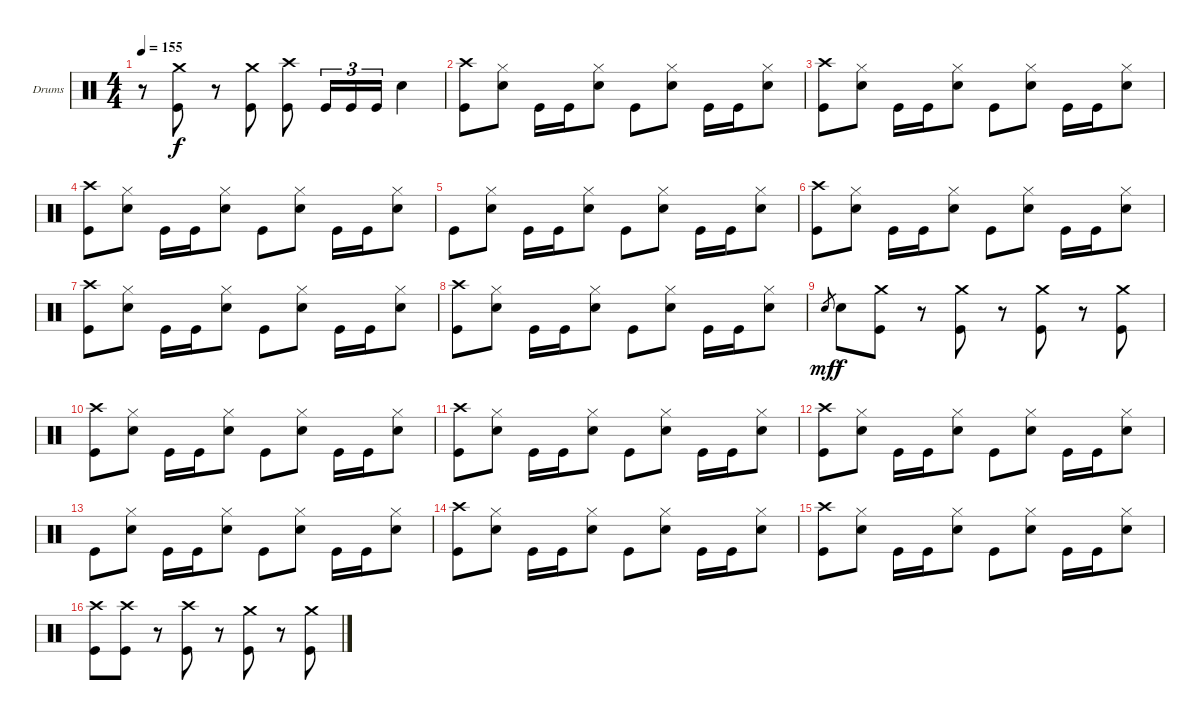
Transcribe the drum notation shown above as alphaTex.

\bracketExtendMode groupsimilarinstruments
\firstSystemTrackNameOrientation horizontal
\otherSystemsTrackNameOrientation horizontal
\track ("Drumkit" "Drums") {instrument percussion}
\staff {score}
\articulation defaults
\ts (4 4)
\tempo 155
\clef neutral
\ks c
r.8{dy f} ("Crash medium (hit)" "Kick (hit)").8 r.8 ("Crash medium (hit)" "Kick (hit)").8 ("Crash high (hit)" "Kick (hit)").8 "Kick (hit)".16{tu (3 2)} "Kick (hit)".16{tu (3 2)} "Kick (hit)".16{tu (3 2)} "Snare (hit) 2".4 |
("Crash high (hit)" "Kick (hit)").8 ("Hi-Hat (closed)" "Snare (hit) 2").8 "Kick (hit)".16 "Kick (hit)".16 ("Hi-Hat (closed)" "Snare (hit) 2").8 "Kick (hit)".8 ("Hi-Hat (closed)" "Snare (hit) 2").8 "Kick (hit)".16 "Kick (hit)".16 ("Hi-Hat (closed)" "Snare (hit) 2").8 |
("Crash high (hit)" "Kick (hit)").8 ("Hi-Hat (closed)" "Snare (hit) 2").8 "Kick (hit)".16 "Kick (hit)".16 ("Hi-Hat (closed)" "Snare (hit) 2").8 "Kick (hit)".8 ("Hi-Hat (closed)" "Snare (hit) 2").8 "Kick (hit)".16 "Kick (hit)".16 ("Hi-Hat (closed)" "Snare (hit) 2").8 |
("Crash high (hit)" "Kick (hit)").8 ("Hi-Hat (closed)" "Snare (hit) 2").8 "Kick (hit)".16 "Kick (hit)".16 ("Hi-Hat (closed)" "Snare (hit) 2").8 "Kick (hit)".8 ("Hi-Hat (closed)" "Snare (hit) 2").8 "Kick (hit)".16 "Kick (hit)".16 ("Hi-Hat (closed)" "Snare (hit) 2").8 |
"Kick (hit)".8 ("Hi-Hat (closed)" "Snare (hit) 2").8 "Kick (hit)".16 "Kick (hit)".16 ("Hi-Hat (closed)" "Snare (hit) 2").8 "Kick (hit)".8 ("Hi-Hat (closed)" "Snare (hit) 2").8 "Kick (hit)".16 "Kick (hit)".16 ("Hi-Hat (closed)" "Snare (hit) 2").8 |
("Crash high (hit)" "Kick (hit)").8 ("Hi-Hat (closed)" "Snare (hit) 2").8 "Kick (hit)".16 "Kick (hit)".16 ("Hi-Hat (closed)" "Snare (hit) 2").8 "Kick (hit)".8 ("Hi-Hat (closed)" "Snare (hit) 2").8 "Kick (hit)".16 "Kick (hit)".16 ("Hi-Hat (closed)" "Snare (hit) 2").8 |
("Crash high (hit)" "Kick (hit)").8 ("Hi-Hat (closed)" "Snare (hit) 2").8 "Kick (hit)".16 "Kick (hit)".16 ("Hi-Hat (closed)" "Snare (hit) 2").8 "Kick (hit)".8 ("Hi-Hat (closed)" "Snare (hit) 2").8 "Kick (hit)".16 "Kick (hit)".16 ("Hi-Hat (closed)" "Snare (hit) 2").8 |
("Crash high (hit)" "Kick (hit)").8 ("Hi-Hat (closed)" "Snare (hit) 2").8 "Kick (hit)".16 "Kick (hit)".16 ("Hi-Hat (closed)" "Snare (hit) 2").8 "Kick (hit)".8 ("Hi-Hat (closed)" "Snare (hit) 2").8 "Kick (hit)".16 "Kick (hit)".16 ("Hi-Hat (closed)" "Snare (hit) 2").8 |
"Snare (hit) 2".8{gr dy mf} "Snare (hit) 2".8{dy f} ("Crash medium (hit)" "Kick (hit)").8 r.8 ("Crash medium (hit)" "Kick (hit)").8 r.8 ("Crash medium (hit)" "Kick (hit)").8 r.8 ("Crash medium (hit)" "Kick (hit)").8 |
("Crash high (hit)" "Kick (hit)").8 ("Hi-Hat (closed)" "Snare (hit) 2").8 "Kick (hit)".16 "Kick (hit)".16 ("Hi-Hat (closed)" "Snare (hit) 2").8 "Kick (hit)".8 ("Hi-Hat (closed)" "Snare (hit) 2").8 "Kick (hit)".16 "Kick (hit)".16 ("Hi-Hat (closed)" "Snare (hit) 2").8 |
("Crash high (hit)" "Kick (hit)").8 ("Hi-Hat (closed)" "Snare (hit) 2").8 "Kick (hit)".16 "Kick (hit)".16 ("Hi-Hat (closed)" "Snare (hit) 2").8 "Kick (hit)".8 ("Hi-Hat (closed)" "Snare (hit) 2").8 "Kick (hit)".16 "Kick (hit)".16 ("Hi-Hat (closed)" "Snare (hit) 2").8 |
("Crash high (hit)" "Kick (hit)").8 ("Hi-Hat (closed)" "Snare (hit) 2").8 "Kick (hit)".16 "Kick (hit)".16 ("Hi-Hat (closed)" "Snare (hit) 2").8 "Kick (hit)".8 ("Hi-Hat (closed)" "Snare (hit) 2").8 "Kick (hit)".16 "Kick (hit)".16 ("Hi-Hat (closed)" "Snare (hit) 2").8 |
"Kick (hit)".8 ("Hi-Hat (closed)" "Snare (hit) 2").8 "Kick (hit)".16 "Kick (hit)".16 ("Hi-Hat (closed)" "Snare (hit) 2").8 "Kick (hit)".8 ("Hi-Hat (closed)" "Snare (hit) 2").8 "Kick (hit)".16 "Kick (hit)".16 ("Hi-Hat (closed)" "Snare (hit) 2").8 |
("Crash high (hit)" "Kick (hit)").8 ("Hi-Hat (closed)" "Snare (hit) 2").8 "Kick (hit)".16 "Kick (hit)".16 ("Hi-Hat (closed)" "Snare (hit) 2").8 "Kick (hit)".8 ("Hi-Hat (closed)" "Snare (hit) 2").8 "Kick (hit)".16 "Kick (hit)".16 ("Hi-Hat (closed)" "Snare (hit) 2").8 |
("Crash high (hit)" "Kick (hit)").8 ("Hi-Hat (closed)" "Snare (hit) 2").8 "Kick (hit)".16 "Kick (hit)".16 ("Hi-Hat (closed)" "Snare (hit) 2").8 "Kick (hit)".8 ("Hi-Hat (closed)" "Snare (hit) 2").8 "Kick (hit)".16 "Kick (hit)".16 ("Hi-Hat (closed)" "Snare (hit) 2").8 |
("Crash high (hit)" "Kick (hit)").8 ("Crash high (hit)" "Kick (hit)").8 r.8 ("Crash high (hit)" "Kick (hit)").8 r.8 ("Crash medium (hit)" "Kick (hit)").8 r.8 ("Crash medium (hit)" "Kick (hit)").8
